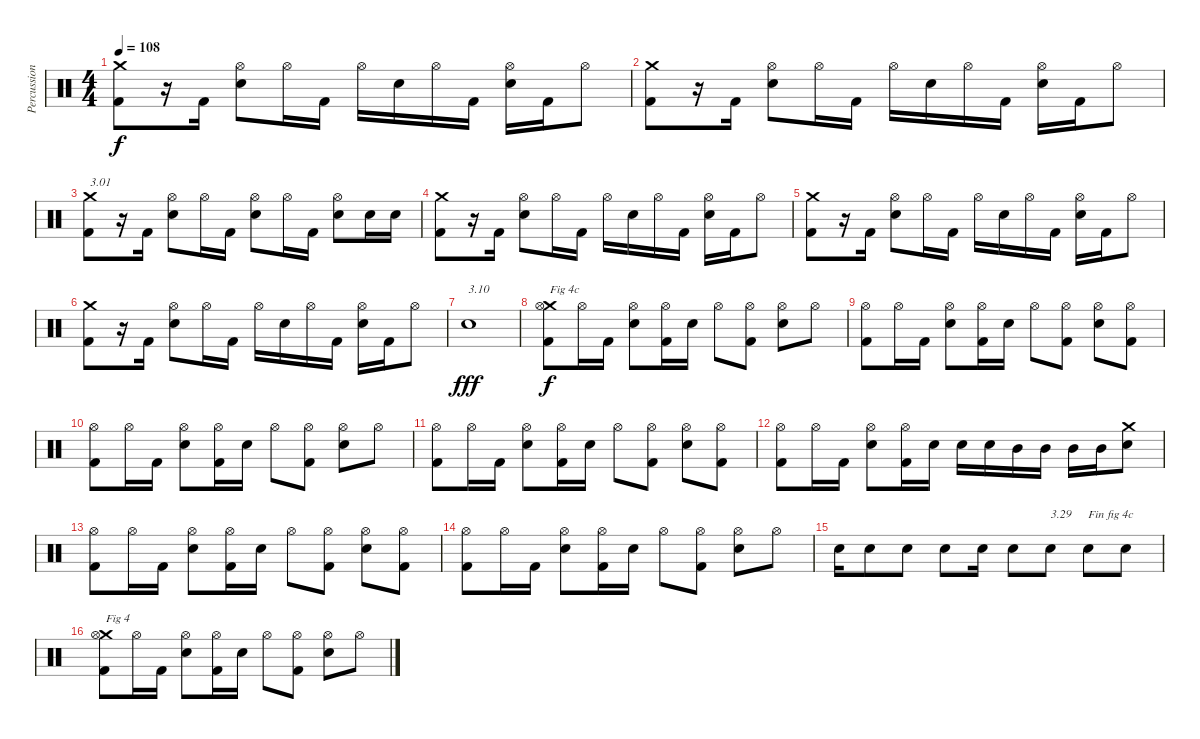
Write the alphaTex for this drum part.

\track ("Percussions" "Percussion") {instrument percussion}
\staff {score}
\articulation defaults
\ts (4 4)
\tempo 108
\clef neutral
\ks c
("Kick (hit) 2" "Crash medium (hit)").8{dy f} r.16 "Kick (hit) 2".16 ("Electric Snare (hit)" "Hi-Hat (open)").8 "Hi-Hat (open)".16 "Kick (hit) 2".16 "Hi-Hat (open)".16 "Electric Snare (hit)".16 "Hi-Hat (open)".16 "Kick (hit) 2".16 ("Electric Snare (hit)" "Hi-Hat (open)").16 "Kick (hit) 2".16 "Hi-Hat (open)".8 |
("Kick (hit) 2" "Crash medium (hit)").8 r.16 "Kick (hit) 2".16 ("Electric Snare (hit)" "Hi-Hat (open)").8 "Hi-Hat (open)".16 "Kick (hit) 2".16 "Hi-Hat (open)".16 "Electric Snare (hit)".16 "Hi-Hat (open)".16 "Kick (hit) 2".16 ("Electric Snare (hit)" "Hi-Hat (open)").16 "Kick (hit) 2".16 "Hi-Hat (open)".8 |
("Kick (hit) 2" "Crash medium (hit)").8{txt "3.01"} r.16 "Kick (hit) 2".16 ("Electric Snare (hit)" "Hi-Hat (open)").8 "Hi-Hat (open)".16 "Kick (hit) 2".16 ("Electric Snare (hit)" "Hi-Hat (open)").8 "Hi-Hat (open)".16 "Kick (hit) 2".16 ("Electric Snare (hit)" "Hi-Hat (open)").8 "Electric Snare (hit)".16 "Electric Snare (hit)".16 |
("Kick (hit) 2" "Crash medium (hit)").8 r.16 "Kick (hit) 2".16 ("Electric Snare (hit)" "Hi-Hat (open)").8 "Hi-Hat (open)".16 "Kick (hit) 2".16 "Hi-Hat (open)".16 "Electric Snare (hit)".16 "Hi-Hat (open)".16 "Kick (hit) 2".16 ("Electric Snare (hit)" "Hi-Hat (open)").16 "Kick (hit) 2".16 "Hi-Hat (open)".8 |
("Kick (hit) 2" "Crash medium (hit)").8 r.16 "Kick (hit) 2".16 ("Electric Snare (hit)" "Hi-Hat (open)").8 "Hi-Hat (open)".16 "Kick (hit) 2".16 "Hi-Hat (open)".16 "Electric Snare (hit)".16 "Hi-Hat (open)".16 "Kick (hit) 2".16 ("Electric Snare (hit)" "Hi-Hat (open)").16 "Kick (hit) 2".16 "Hi-Hat (open)".8 |
("Kick (hit) 2" "Crash medium (hit)").8 r.16 "Kick (hit) 2".16 ("Electric Snare (hit)" "Hi-Hat (open)").8 "Hi-Hat (open)".16 "Kick (hit) 2".16 "Hi-Hat (open)".16 "Electric Snare (hit)".16 "Hi-Hat (open)".16 "Kick (hit) 2".16 ("Electric Snare (hit)" "Hi-Hat (open)").16 "Kick (hit) 2".16 "Hi-Hat (open)".8 |
"Electric Snare (hit)".1{txt "3.10" dy fff} |
("Kick (hit) 2" "Crash medium (hit)" "Hi-Hat (open)").8{txt "Fig 4c" dy f} "Hi-Hat (open)".16 "Kick (hit) 2".16 ("Electric Snare (hit)" "Hi-Hat (open)").8 ("Kick (hit) 2" "Hi-Hat (open)").16 "Electric Snare (hit)".16 "Hi-Hat (open)".8 ("Kick (hit) 2" "Hi-Hat (open)").8 ("Electric Snare (hit)" "Hi-Hat (open)").8 "Hi-Hat (open)".8 |
("Kick (hit) 2" "Hi-Hat (open)").8 "Hi-Hat (open)".16 "Kick (hit) 2".16 ("Electric Snare (hit)" "Hi-Hat (open)").8 ("Kick (hit) 2" "Hi-Hat (open)").16 "Electric Snare (hit)".16 "Hi-Hat (open)".8 ("Kick (hit) 2" "Hi-Hat (open)").8 ("Electric Snare (hit)" "Hi-Hat (open)").8 ("Kick (hit) 2" "Hi-Hat (open)").8 |
("Kick (hit) 2" "Hi-Hat (open)").8 "Hi-Hat (open)".16 "Kick (hit) 2".16 ("Electric Snare (hit)" "Hi-Hat (open)").8 ("Kick (hit) 2" "Hi-Hat (open)").16 "Electric Snare (hit)".16 "Hi-Hat (open)".8 ("Kick (hit) 2" "Hi-Hat (open)").8 ("Electric Snare (hit)" "Hi-Hat (open)").8 "Hi-Hat (open)".8 |
("Kick (hit) 2" "Hi-Hat (open)").8 "Hi-Hat (open)".16 "Kick (hit) 2".16 ("Electric Snare (hit)" "Hi-Hat (open)").8 ("Kick (hit) 2" "Hi-Hat (open)").16 "Electric Snare (hit)".16 "Hi-Hat (open)".8 ("Kick (hit) 2" "Hi-Hat (open)").8 ("Electric Snare (hit)" "Hi-Hat (open)").8 ("Kick (hit) 2" "Hi-Hat (open)").8 |
("Kick (hit) 2" "Hi-Hat (open)").8 "Hi-Hat (open)".16 "Kick (hit) 2".16 ("Electric Snare (hit)" "Hi-Hat (open)").8 ("Kick (hit) 2" "Hi-Hat (open)").16 "Electric Snare (hit)".16 "Electric Snare (hit)".16 "Electric Snare (hit)".16 "Mid Tom (hit)".16 "Mid Tom (hit)".16 "Mid Tom (hit)".16 "Mid Tom (hit)".16 ("Electric Snare (hit)" "Crash medium (hit)").8 |
("Kick (hit) 2" "Hi-Hat (open)").8 "Hi-Hat (open)".16 "Kick (hit) 2".16 ("Electric Snare (hit)" "Hi-Hat (open)").8 ("Kick (hit) 2" "Hi-Hat (open)").16 "Electric Snare (hit)".16 "Hi-Hat (open)".8 ("Kick (hit) 2" "Hi-Hat (open)").8 ("Electric Snare (hit)" "Hi-Hat (open)").8 ("Kick (hit) 2" "Hi-Hat (open)").8 |
("Kick (hit) 2" "Hi-Hat (open)").8 "Hi-Hat (open)".16 "Kick (hit) 2".16 ("Electric Snare (hit)" "Hi-Hat (open)").8 ("Kick (hit) 2" "Hi-Hat (open)").16 "Electric Snare (hit)".16 "Hi-Hat (open)".8 ("Kick (hit) 2" "Hi-Hat (open)").8 ("Electric Snare (hit)" "Hi-Hat (open)").8 "Hi-Hat (open)".8 |
"Electric Snare (hit)".16 "Electric Snare (hit)".8 "Electric Snare (hit)".8 "Electric Snare (hit)".8 "Electric Snare (hit)".16 "Electric Snare (hit)".8 "Electric Snare (hit)".8{txt "3.29"} "Electric Snare (hit)".8{txt "Fin fig 4c"} "Electric Snare (hit)".8 |
("Kick (hit) 2" "Crash medium (hit)" "Hi-Hat (open)").8{txt "Fig 4"} "Hi-Hat (open)".16 "Kick (hit) 2".16 ("Electric Snare (hit)" "Hi-Hat (open)").8 ("Kick (hit) 2" "Hi-Hat (open)").16 "Electric Snare (hit)".16 "Hi-Hat (open)".8 ("Kick (hit) 2" "Hi-Hat (open)").8 ("Electric Snare (hit)" "Hi-Hat (open)").8 "Hi-Hat (open)".8
